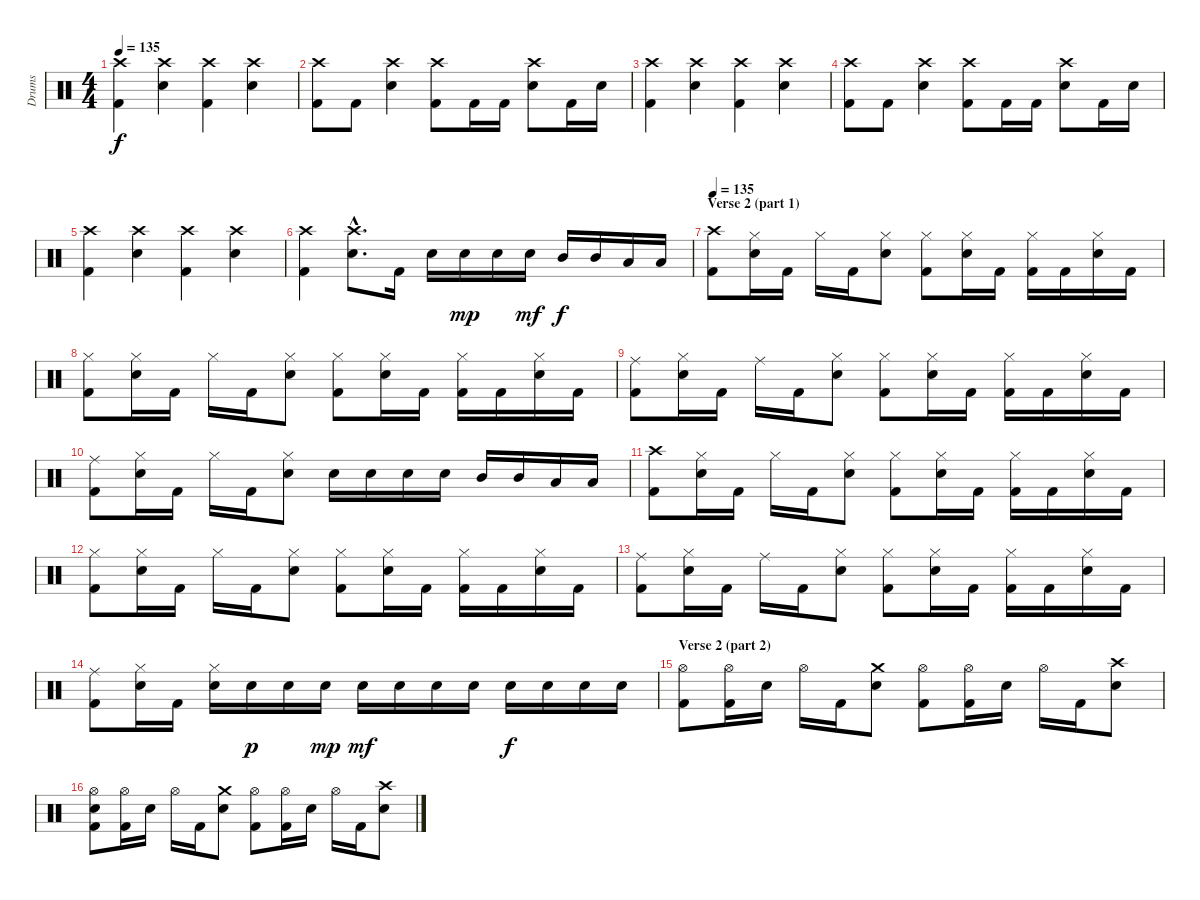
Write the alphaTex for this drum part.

\track ("Drums" "Drums") {instrument percussion}
\staff {score}
\articulation defaults
\ts (4 4)
\tempo 135
\clef neutral
\ks c
("Crash high (hit)" "Kick (hit) 2").4{dy f} ("Crash high (hit)" "Electric Snare (hit)").4 ("Crash high (hit)" "Kick (hit) 2").4 ("Crash high (hit)" "Electric Snare (hit)").4 |
("Crash high (hit)" "Kick (hit) 2").8 "Kick (hit) 2".8 ("Crash high (hit)" "Electric Snare (hit)").4 ("Crash high (hit)" "Kick (hit) 2").8 "Kick (hit) 2".16 "Kick (hit) 2".16 ("Crash high (hit)" "Electric Snare (hit)").8 "Kick (hit) 2".16 "Electric Snare (hit)".16 |
("Crash high (hit)" "Kick (hit) 2").4 ("Crash high (hit)" "Electric Snare (hit)").4 ("Crash high (hit)" "Kick (hit) 2").4 ("Crash high (hit)" "Electric Snare (hit)").4 |
("Crash high (hit)" "Kick (hit) 2").8 "Kick (hit) 2".8 ("Crash high (hit)" "Electric Snare (hit)").4 ("Crash high (hit)" "Kick (hit) 2").8 "Kick (hit) 2".16 "Kick (hit) 2".16 ("Crash high (hit)" "Electric Snare (hit)").8 "Kick (hit) 2".16 "Electric Snare (hit)".16 |
("Crash high (hit)" "Kick (hit) 2").4 ("Crash high (hit)" "Electric Snare (hit)").4 ("Crash high (hit)" "Kick (hit) 2").4 ("Crash high (hit)" "Electric Snare (hit)").4 |
("Crash high (hit)" "Kick (hit) 2").4 ("Crash high (hit)"{hac} "Electric Snare (hit)"{hac}).8{d} "Kick (hit) 2".16 "Electric Snare (hit)".16 "Electric Snare (hit)".16{dy mp} "Electric Snare (hit)".16 "Electric Snare (hit)".16{dy mf} "Mid Tom (hit)".16{dy f} "Mid Tom (hit)".16 "Low Tom (hit)".16 "Low Tom (hit)".16 |
\section ("" "Verse 2 (part 1)")
\tempo 135
("Crash high (hit)" "Kick (hit) 2").8 ("Hi-Hat (closed)" "Electric Snare (hit)").16 "Kick (hit) 2".16 "Hi-Hat (closed)".16 "Kick (hit) 2".16 ("Hi-Hat (closed)" "Electric Snare (hit)").8 ("Hi-Hat (closed)" "Kick (hit) 2").8 ("Hi-Hat (closed)" "Electric Snare (hit)").16 "Kick (hit) 2".16 ("Hi-Hat (closed)" "Kick (hit) 2").16 "Kick (hit) 2".16 ("Hi-Hat (closed)" "Electric Snare (hit)").16 "Kick (hit) 2".16 |
("Hi-Hat (closed)" "Kick (hit) 2").8 ("Hi-Hat (closed)" "Electric Snare (hit)").16 "Kick (hit) 2".16 "Hi-Hat (closed)".16 "Kick (hit) 2".16 ("Hi-Hat (closed)" "Electric Snare (hit)").8 ("Hi-Hat (closed)" "Kick (hit) 2").8 ("Hi-Hat (closed)" "Electric Snare (hit)").16 "Kick (hit) 2".16 ("Hi-Hat (closed)" "Kick (hit) 2").16 "Kick (hit) 2".16 ("Hi-Hat (closed)" "Electric Snare (hit)").16 "Kick (hit) 2".16 |
("Ride (middle)" "Kick (hit) 2").8 ("Hi-Hat (closed)" "Electric Snare (hit)").16 "Kick (hit) 2".16 "Ride (middle)".16 "Kick (hit) 2".16 ("Hi-Hat (closed)" "Electric Snare (hit)").8 ("Hi-Hat (closed)" "Kick (hit) 2").8 ("Hi-Hat (closed)" "Electric Snare (hit)").16 "Kick (hit) 2".16 ("Hi-Hat (closed)" "Kick (hit) 2").16 "Kick (hit) 2".16 ("Hi-Hat (closed)" "Electric Snare (hit)").16 "Kick (hit) 2".16 |
("Ride (middle)" "Kick (hit) 2").8 ("Hi-Hat (closed)" "Electric Snare (hit)").16 "Kick (hit) 2".16 "Hi-Hat (closed)".16 "Kick (hit) 2".16 ("Hi-Hat (closed)" "Electric Snare (hit)").8 "Electric Snare (hit)".16 "Electric Snare (hit)".16 "Electric Snare (hit)".16 "Electric Snare (hit)".16 "Mid Tom (hit)".16 "Mid Tom (hit)".16 "Low Tom (hit)".16 "Low Tom (hit)".16 |
("Crash high (hit)" "Kick (hit) 2").8 ("Hi-Hat (closed)" "Electric Snare (hit)").16 "Kick (hit) 2".16 "Hi-Hat (closed)".16 "Kick (hit) 2".16 ("Hi-Hat (closed)" "Electric Snare (hit)").8 ("Hi-Hat (closed)" "Kick (hit) 2").8 ("Hi-Hat (closed)" "Electric Snare (hit)").16 "Kick (hit) 2".16 ("Hi-Hat (closed)" "Kick (hit) 2").16 "Kick (hit) 2".16 ("Hi-Hat (closed)" "Electric Snare (hit)").16 "Kick (hit) 2".16 |
("Hi-Hat (closed)" "Kick (hit) 2").8 ("Hi-Hat (closed)" "Electric Snare (hit)").16 "Kick (hit) 2".16 "Hi-Hat (closed)".16 "Kick (hit) 2".16 ("Hi-Hat (closed)" "Electric Snare (hit)").8 ("Hi-Hat (closed)" "Kick (hit) 2").8 ("Hi-Hat (closed)" "Electric Snare (hit)").16 "Kick (hit) 2".16 ("Hi-Hat (closed)" "Kick (hit) 2").16 "Kick (hit) 2".16 ("Hi-Hat (closed)" "Electric Snare (hit)").16 "Kick (hit) 2".16 |
("Ride (middle)" "Kick (hit) 2").8 ("Hi-Hat (closed)" "Electric Snare (hit)").16 "Kick (hit) 2".16 "Ride (middle)".16 "Kick (hit) 2".16 ("Hi-Hat (closed)" "Electric Snare (hit)").8 ("Hi-Hat (closed)" "Kick (hit) 2").8 ("Hi-Hat (closed)" "Electric Snare (hit)").16 "Kick (hit) 2".16 ("Hi-Hat (closed)" "Kick (hit) 2").16 "Kick (hit) 2".16 ("Hi-Hat (closed)" "Electric Snare (hit)").16 "Kick (hit) 2".16 |
("Ride (middle)" "Kick (hit) 2").8 ("Hi-Hat (closed)" "Electric Snare (hit)").16 "Kick (hit) 2".16 ("Hi-Hat (closed)" "Electric Snare (hit)").16 "Electric Snare (hit)".16{dy p} "Electric Snare (hit)".16 "Electric Snare (hit)".16{dy mp} "Electric Snare (hit)".16{dy mf} "Electric Snare (hit)".16 "Electric Snare (hit)".16 "Electric Snare (hit)".16 "Electric Snare (hit)".16{dy f} "Electric Snare (hit)".16 "Electric Snare (hit)".16 "Electric Snare (hit)".16 |
\section ("" "Verse 2 (part 2)")
("Hi-Hat (open)" "Kick (hit) 2").8 ("Hi-Hat (open)" "Kick (hit) 2").16 "Electric Snare (hit)".16 "Hi-Hat (open)".16 "Kick (hit) 2".16 ("Crash medium (hit)" "Electric Snare (hit)").8 ("Hi-Hat (open)" "Kick (hit) 2").8 ("Hi-Hat (open)" "Kick (hit) 2").16 "Electric Snare (hit)".16 "Hi-Hat (open)".16 "Kick (hit) 2".16 ("Crash high (hit)" "Electric Snare (hit)").8 |
("Hi-Hat (open)" "Electric Snare (hit)" "Kick (hit) 2").8 ("Hi-Hat (open)" "Kick (hit) 2").16 "Electric Snare (hit)".16 "Hi-Hat (open)".16 "Kick (hit) 2".16 ("Crash medium (hit)" "Electric Snare (hit)").8 ("Hi-Hat (open)" "Kick (hit) 2").8 ("Hi-Hat (open)" "Kick (hit) 2").16 "Electric Snare (hit)".16 "Hi-Hat (open)".16 "Kick (hit) 2".16 ("Crash high (hit)" "Electric Snare (hit)").8
